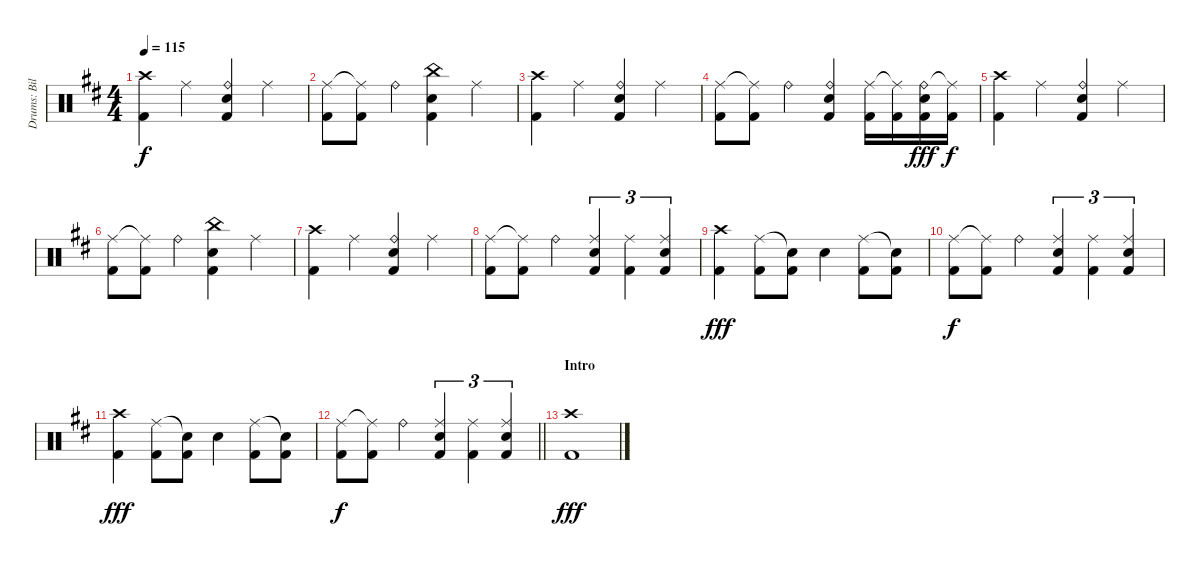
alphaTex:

\track ("Drums: Bill" "Drums: Bil") {instrument percussion}
\staff {score}
\articulation defaults
\ts (4 4)
\tempo 115
\clef neutral
\ks d
("Crash high (hit)" "Kick (hit) 2").4{dy f} "Ride (middle)".4 ("Ride (bell)" "Snare (hit) 2" "Kick (hit) 2").4 "Ride (middle)".4 |
("Ride (middle)" "Kick (hit) 2").8 ("Ride (middle)"{t} "Kick (hit) 2").8 "Ride (bell)".4 ("China (hit)" "Snare (hit) 2" "Kick (hit) 2").4 "Ride (middle)".4 |
("Crash high (hit)" "Kick (hit) 2").4 "Ride (middle)".4 ("Ride (bell)" "Snare (hit) 2" "Kick (hit) 2").4 "Ride (middle)".4 |
("Ride (middle)" "Kick (hit) 2").8 ("Ride (middle)"{t} "Kick (hit) 2").8 "Ride (bell)".4 ("Ride (bell)" "Snare (hit) 2" "Kick (hit) 2").4 ("Ride (middle)" "Kick (hit) 2").16 ("Ride (middle)"{t} "Kick (hit) 2").16 ("Ride (bell)" "Snare (hit) 2" "Kick (hit) 2").16{dy fff} ("Ride (middle)"{t} "Kick (hit) 2").16{dy f} |
("Crash high (hit)" "Kick (hit) 2").4 "Ride (middle)".4 ("Ride (bell)" "Snare (hit) 2" "Kick (hit) 2").4 "Ride (middle)".4 |
("Ride (middle)" "Kick (hit) 2").8 ("Ride (middle)"{t} "Kick (hit) 2").8 "Ride (bell)".4 ("China (hit)" "Snare (hit) 2" "Kick (hit) 2").4 "Ride (middle)".4 |
("Crash high (hit)" "Kick (hit) 2").4 "Ride (middle)".4 ("Ride (bell)" "Snare (hit) 2" "Kick (hit) 2").4 "Ride (middle)".4 |
("Ride (middle)" "Kick (hit) 2").8 ("Ride (middle)"{t} "Kick (hit) 2").8 "Ride (bell)".4 ("Ride (middle)" "Snare (hit) 2" "Kick (hit) 2").4{tu (3 2)} ("Ride (middle)" "Kick (hit) 2").4{tu (3 2)} ("Ride (middle)" "Snare (hit) 2" "Kick (hit) 2").4{tu (3 2)} |
("Crash high (hit)" "Kick (hit) 2").4{dy fff} ("Ride (middle)" "Kick (hit) 2").8 ("Snare (hit)"{t} "Kick (hit) 2").8 "Snare (hit) 2".4 ("Ride (middle)" "Kick (hit) 2").8 ("Snare (hit)"{t} "Kick (hit) 2").8 |
("Ride (middle)" "Kick (hit) 2").8{dy f} ("Ride (middle)"{t} "Kick (hit) 2").8 "Ride (bell)".4 ("Ride (middle)" "Snare (hit) 2" "Kick (hit) 2").4{tu (3 2)} ("Ride (middle)" "Kick (hit) 2").4{tu (3 2)} ("Ride (middle)" "Snare (hit) 2" "Kick (hit) 2").4{tu (3 2)} |
("Crash high (hit)" "Kick (hit) 2").4{dy fff} ("Ride (middle)" "Kick (hit) 2").8 ("Snare (hit)"{t} "Kick (hit) 2").8 "Snare (hit) 2".4 ("Ride (middle)" "Kick (hit) 2").8 ("Snare (hit)"{t} "Kick (hit) 2").8 |
\barLineRight lightlight
("Ride (middle)" "Kick (hit) 2").8{dy f} ("Ride (middle)"{t} "Kick (hit) 2").8 "Ride (bell)".4 ("Ride (middle)" "Snare (hit) 2" "Kick (hit) 2").4{tu (3 2)} ("Ride (middle)" "Kick (hit) 2").4{tu (3 2)} ("Ride (middle)" "Snare (hit) 2" "Kick (hit) 2").4{tu (3 2)} |
\section ("" "Intro")
("Crash high (hit)" "Kick (hit) 2").1{dy fff}
